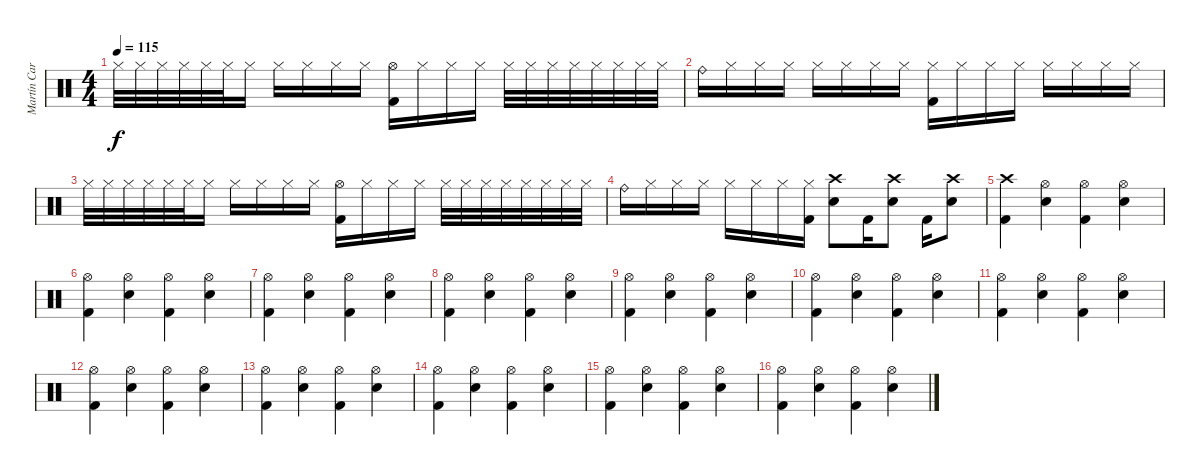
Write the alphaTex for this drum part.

\track ("Martín Carrizo" "Martín Car") {instrument percussion}
\staff {score}
\articulation defaults
\ts (4 4)
\tempo 115
\clef neutral
\ks c "Hi-Hat (closed)".32{dy f} "Hi-Hat (closed)".32 "Hi-Hat (closed)".32 "Hi-Hat (closed)".32 "Hi-Hat (closed)".32 "Hi-Hat (closed)".32 "Hi-Hat (closed)".16 "Hi-Hat (closed)".16 "Hi-Hat (closed)".16 "Hi-Hat (closed)".16 "Hi-Hat (closed)".16
("Kick (hit) 2" "Hi-Hat (open)").16 "Hi-Hat (closed)".16 "Hi-Hat (closed)".16 "Hi-Hat (closed)".16 "Hi-Hat (closed)".32 "Hi-Hat (closed)".32 "Hi-Hat (closed)".32 "Hi-Hat (closed)".32 "Hi-Hat (closed)".32 "Hi-Hat (closed)".32 "Hi-Hat (closed)".32 "Hi-Hat (closed)".32 |
"Ride (bell)".16 "Hi-Hat (closed)".16 "Hi-Hat (closed)".16 "Hi-Hat (closed)".16 "Hi-Hat (closed)".16 "Hi-Hat (closed)".16 "Hi-Hat (closed)".16 "Hi-Hat (closed)".16 ("Hi-Hat (closed)" "Kick (hit) 2").16 "Hi-Hat (closed)".16 "Hi-Hat (closed)".16 "Hi-Hat (closed)".16 "Hi-Hat (closed)".16 "Hi-Hat (closed)".16 "Hi-Hat (closed)".16 "Hi-Hat (closed)".16 |
"Hi-Hat (closed)".32 "Hi-Hat (closed)".32 "Hi-Hat (closed)".32 "Hi-Hat (closed)".32 "Hi-Hat (closed)".32 "Hi-Hat (closed)".32 "Hi-Hat (closed)".16 "Hi-Hat (closed)".16 "Hi-Hat (closed)".16 "Hi-Hat (closed)".16 "Hi-Hat (closed)".16 ("Kick (hit) 2" "Hi-Hat (open)").16 "Hi-Hat (closed)".16 "Hi-Hat (closed)".16 "Hi-Hat (closed)".16 "Hi-Hat (closed)".32 "Hi-Hat (closed)".32 "Hi-Hat (closed)".32 "Hi-Hat (closed)".32 "Hi-Hat (closed)".32 "Hi-Hat (closed)".32 "Hi-Hat (closed)".32 "Hi-Hat (closed)".32 |
"Ride (bell)".16 "Hi-Hat (closed)".16 "Hi-Hat (closed)".16 "Hi-Hat (closed)".16 "Hi-Hat (closed)".16 "Hi-Hat (closed)".16 "Hi-Hat (closed)".16 ("Hi-Hat (closed)" "Kick (hit) 2").16 ("Crash high (hit)" "Snare (hit) 2").8 "Kick (hit) 2".16 ("Crash high (hit)" "Snare (hit) 2").8 "Kick (hit) 2".16 ("Crash high (hit)" "Snare (hit) 2").8 |
("Crash high (hit)" "Kick (hit) 2").4 ("Hi-Hat (open)" "Snare (hit) 2").4 ("Hi-Hat (open)" "Kick (hit) 2").4 ("Hi-Hat (open)" "Snare (hit) 2").4 |
("Hi-Hat (open)" "Kick (hit) 2").4 ("Hi-Hat (open)" "Snare (hit) 2").4 ("Hi-Hat (open)" "Kick (hit) 2").4 ("Hi-Hat (open)" "Snare (hit) 2").4 |
("Hi-Hat (open)" "Kick (hit) 2").4 ("Hi-Hat (open)" "Snare (hit) 2").4 ("Hi-Hat (open)" "Kick (hit) 2").4 ("Hi-Hat (open)" "Snare (hit) 2").4 |
("Hi-Hat (open)" "Kick (hit) 2").4 ("Hi-Hat (open)" "Snare (hit) 2").4 ("Hi-Hat (open)" "Kick (hit) 2").4 ("Hi-Hat (open)" "Snare (hit) 2").4 |
("Hi-Hat (open)" "Kick (hit) 2").4 ("Hi-Hat (open)" "Snare (hit) 2").4 ("Hi-Hat (open)" "Kick (hit) 2").4 ("Hi-Hat (open)" "Snare (hit) 2").4 |
("Hi-Hat (open)" "Kick (hit) 2").4 ("Hi-Hat (open)" "Snare (hit) 2").4 ("Hi-Hat (open)" "Kick (hit) 2").4 ("Hi-Hat (open)" "Snare (hit) 2").4 |
("Hi-Hat (open)" "Kick (hit) 2").4 ("Hi-Hat (open)" "Snare (hit) 2").4 ("Hi-Hat (open)" "Kick (hit) 2").4 ("Hi-Hat (open)" "Snare (hit) 2").4 |
("Hi-Hat (open)" "Kick (hit) 2").4 ("Hi-Hat (open)" "Snare (hit) 2").4 ("Hi-Hat (open)" "Kick (hit) 2").4 ("Hi-Hat (open)" "Snare (hit) 2").4 |
("Hi-Hat (open)" "Kick (hit) 2").4 ("Hi-Hat (open)" "Snare (hit) 2").4 ("Hi-Hat (open)" "Kick (hit) 2").4 ("Hi-Hat (open)" "Snare (hit) 2").4 |
("Hi-Hat (open)" "Kick (hit) 2").4 ("Hi-Hat (open)" "Snare (hit) 2").4 ("Hi-Hat (open)" "Kick (hit) 2").4 ("Hi-Hat (open)" "Snare (hit) 2").4 |
("Hi-Hat (open)" "Kick (hit) 2").4 ("Hi-Hat (open)" "Snare (hit) 2").4 ("Hi-Hat (open)" "Kick (hit) 2").4 ("Hi-Hat (open)" "Snare (hit) 2").4 |
("Hi-Hat (open)" "Kick (hit) 2").4 ("Hi-Hat (open)" "Snare (hit) 2").4 ("Hi-Hat (open)" "Kick (hit) 2").4 ("Hi-Hat (open)" "Snare (hit) 2").4
